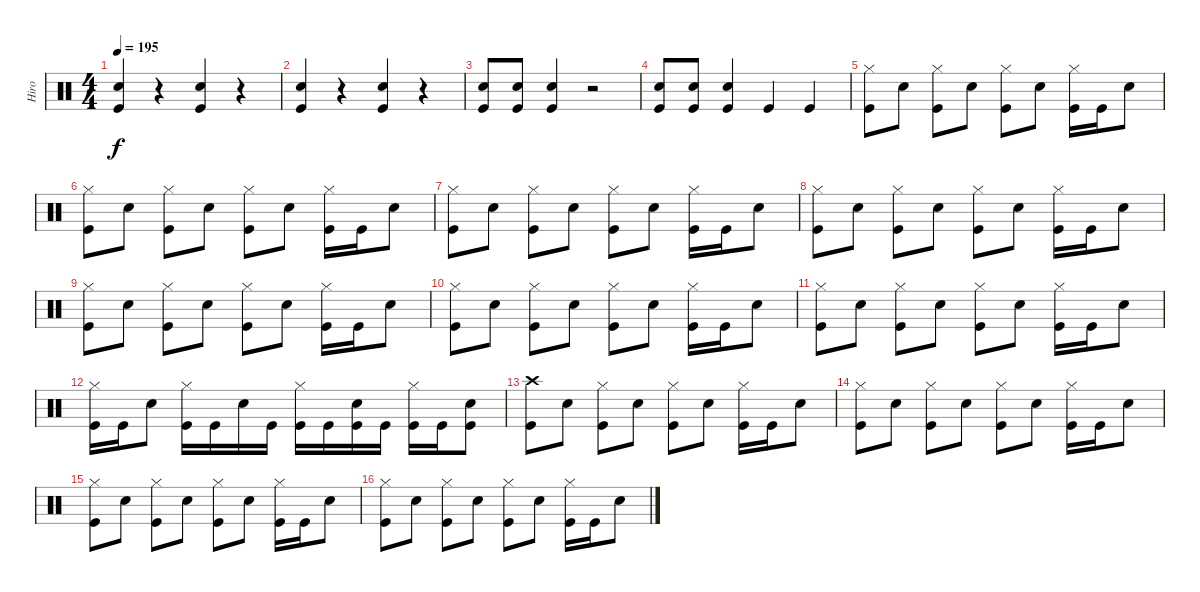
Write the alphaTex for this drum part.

\track ("Hiro" "Hiro") {instrument percussion}
\staff {score}
\articulation defaults
\ts (4 4)
\tempo 195
\clef neutral
\ks c
("Snare (hit) 2" "Kick (hit)").4{dy f} r.4 ("Snare (hit) 2" "Kick (hit)").4 r.4 |
("Snare (hit) 2" "Kick (hit)").4 r.4 ("Snare (hit) 2" "Kick (hit)").4 r.4 |
("Kick (hit)" "Snare (hit) 2").8 ("Kick (hit)" "Snare (hit) 2").8 ("Kick (hit)" "Snare (hit) 2").4 r.2 |
("Snare (hit) 2" "Kick (hit)").8 ("Snare (hit) 2" "Kick (hit)").8 ("Snare (hit) 2" "Kick (hit)").4 "Kick (hit)".4 "Kick (hit)".4 |
("Kick (hit)" "Hi-Hat (closed)").8 "Snare (hit) 2".8 ("Kick (hit)" "Hi-Hat (closed)").8 "Snare (hit) 2".8 ("Kick (hit)" "Hi-Hat (closed)").8 "Snare (hit) 2".8 ("Kick (hit)" "Hi-Hat (closed)").16 "Kick (hit)".16 "Snare (hit) 2".8 |
("Kick (hit)" "Hi-Hat (closed)").8 "Snare (hit) 2".8 ("Kick (hit)" "Hi-Hat (closed)").8 "Snare (hit) 2".8 ("Kick (hit)" "Hi-Hat (closed)").8 "Snare (hit) 2".8 ("Kick (hit)" "Hi-Hat (closed)").16 "Kick (hit)".16 "Snare (hit) 2".8 |
("Kick (hit)" "Hi-Hat (closed)").8 "Snare (hit) 2".8 ("Kick (hit)" "Hi-Hat (closed)").8 "Snare (hit) 2".8 ("Kick (hit)" "Hi-Hat (closed)").8 "Snare (hit) 2".8 ("Kick (hit)" "Hi-Hat (closed)").16 "Kick (hit)".16 "Snare (hit) 2".8 |
("Kick (hit)" "Hi-Hat (closed)").8 "Snare (hit) 2".8 ("Kick (hit)" "Hi-Hat (closed)").8 "Snare (hit) 2".8 ("Kick (hit)" "Hi-Hat (closed)").8 "Snare (hit) 2".8 ("Kick (hit)" "Hi-Hat (closed)").16 "Kick (hit)".16 "Snare (hit) 2".8 |
("Kick (hit)" "Hi-Hat (closed)").8 "Snare (hit) 2".8 ("Kick (hit)" "Hi-Hat (closed)").8 "Snare (hit) 2".8 ("Kick (hit)" "Hi-Hat (closed)").8 "Snare (hit) 2".8 ("Kick (hit)" "Hi-Hat (closed)").16 "Kick (hit)".16 "Snare (hit) 2".8 |
("Kick (hit)" "Hi-Hat (closed)").8 "Snare (hit) 2".8 ("Kick (hit)" "Hi-Hat (closed)").8 "Snare (hit) 2".8 ("Kick (hit)" "Hi-Hat (closed)").8 "Snare (hit) 2".8 ("Kick (hit)" "Hi-Hat (closed)").16 "Kick (hit)".16 "Snare (hit) 2".8 |
("Kick (hit)" "Hi-Hat (closed)").8 "Snare (hit) 2".8 ("Kick (hit)" "Hi-Hat (closed)").8 "Snare (hit) 2".8 ("Kick (hit)" "Hi-Hat (closed)").8 "Snare (hit) 2".8 ("Kick (hit)" "Hi-Hat (closed)").16 "Kick (hit)".16 "Snare (hit) 2".8 |
("Kick (hit)" "Hi-Hat (closed)").16 "Kick (hit)".16 "Snare (hit) 2".8 ("Kick (hit)" "Hi-Hat (closed)").16 "Kick (hit)".16 "Snare (hit) 2".16 "Kick (hit)".16 ("Kick (hit)" "Hi-Hat (closed)").16 "Kick (hit)".16 ("Snare (hit) 2" "Kick (hit)").16 "Kick (hit)".16 ("Kick (hit)" "Hi-Hat (closed)").16 "Kick (hit)".16 ("Snare (hit) 2" "Kick (hit)").8 |
("Kick (hit)" "Crash high (hit)").8 "Snare (hit) 2".8 ("Kick (hit)" "Hi-Hat (closed)").8 "Snare (hit) 2".8 ("Kick (hit)" "Hi-Hat (closed)").8 "Snare (hit) 2".8 ("Kick (hit)" "Hi-Hat (closed)").16 "Kick (hit)".16 "Snare (hit) 2".8 |
("Kick (hit)" "Hi-Hat (closed)").8 "Snare (hit) 2".8 ("Kick (hit)" "Hi-Hat (closed)").8 "Snare (hit) 2".8 ("Kick (hit)" "Hi-Hat (closed)").8 "Snare (hit) 2".8 ("Kick (hit)" "Hi-Hat (closed)").16 "Kick (hit)".16 "Snare (hit) 2".8 |
("Kick (hit)" "Hi-Hat (closed)").8 "Snare (hit) 2".8 ("Kick (hit)" "Hi-Hat (closed)").8 "Snare (hit) 2".8 ("Kick (hit)" "Hi-Hat (closed)").8 "Snare (hit) 2".8 ("Kick (hit)" "Hi-Hat (closed)").16 "Kick (hit)".16 "Snare (hit) 2".8 |
("Kick (hit)" "Hi-Hat (closed)").8 "Snare (hit) 2".8 ("Kick (hit)" "Hi-Hat (closed)").8 "Snare (hit) 2".8 ("Kick (hit)" "Hi-Hat (closed)").8 "Snare (hit) 2".8 ("Kick (hit)" "Hi-Hat (closed)").16 "Kick (hit)".16 "Snare (hit) 2".8
